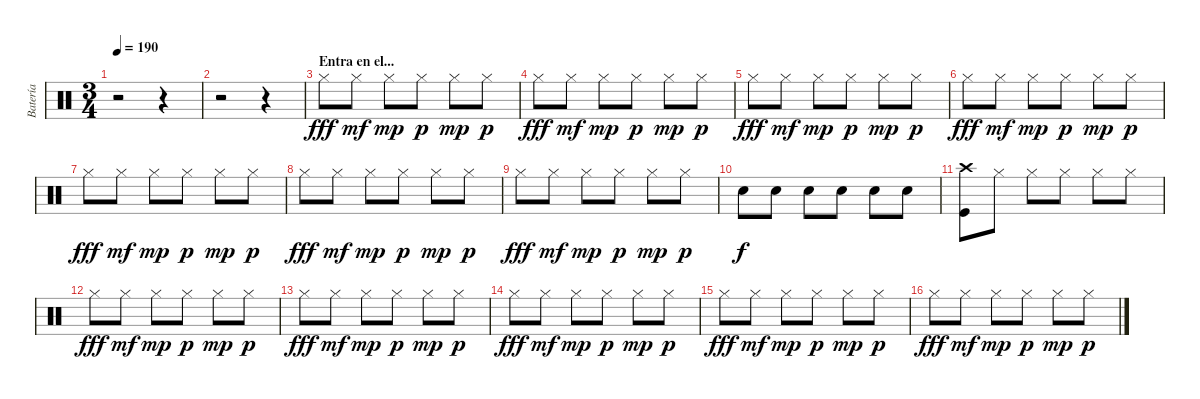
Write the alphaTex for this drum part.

\track ("Batería" "Batería") {instrument percussion}
\staff {score}
\articulation defaults
\ts (3 4)
\tempo 190
\clef neutral
\ks c
r.2{dy f} r.4 |
r.2 r.4 |
\section ("" "Entra en el...")
"Hi-Hat (closed)".8{dy fff} "Hi-Hat (closed)".8{dy mf} "Hi-Hat (closed)".8{dy mp} "Hi-Hat (closed)".8{dy p} "Hi-Hat (closed)".8{dy mp} "Hi-Hat (closed)".8{dy p} |
"Hi-Hat (closed)".8{dy fff} "Hi-Hat (closed)".8{dy mf} "Hi-Hat (closed)".8{dy mp} "Hi-Hat (closed)".8{dy p} "Hi-Hat (closed)".8{dy mp} "Hi-Hat (closed)".8{dy p} |
"Hi-Hat (closed)".8{dy fff} "Hi-Hat (closed)".8{dy mf} "Hi-Hat (closed)".8{dy mp} "Hi-Hat (closed)".8{dy p} "Hi-Hat (closed)".8{dy mp} "Hi-Hat (closed)".8{dy p} |
"Hi-Hat (closed)".8{dy fff} "Hi-Hat (closed)".8{dy mf} "Hi-Hat (closed)".8{dy mp} "Hi-Hat (closed)".8{dy p} "Hi-Hat (closed)".8{dy mp} "Hi-Hat (closed)".8{dy p} |
"Hi-Hat (closed)".8{dy fff} "Hi-Hat (closed)".8{dy mf} "Hi-Hat (closed)".8{dy mp} "Hi-Hat (closed)".8{dy p} "Hi-Hat (closed)".8{dy mp} "Hi-Hat (closed)".8{dy p} |
"Hi-Hat (closed)".8{dy fff} "Hi-Hat (closed)".8{dy mf} "Hi-Hat (closed)".8{dy mp} "Hi-Hat (closed)".8{dy p} "Hi-Hat (closed)".8{dy mp} "Hi-Hat (closed)".8{dy p} |
"Hi-Hat (closed)".8{dy fff} "Hi-Hat (closed)".8{dy mf} "Hi-Hat (closed)".8{dy mp} "Hi-Hat (closed)".8{dy p} "Hi-Hat (closed)".8{dy mp} "Hi-Hat (closed)".8{dy p} |
"Electric Snare (hit)".8{dy f} "Electric Snare (hit)".8 "Snare (hit) 2".8 "Snare (hit) 2".8 "Snare (hit) 2".8 "Snare (hit) 2".8 |
("Kick (hit)" "Crash high (hit)").8 "Hi-Hat (closed)".8 "Hi-Hat (closed)".8 "Hi-Hat (closed)".8 "Hi-Hat (closed)".8 "Hi-Hat (closed)".8 |
"Hi-Hat (closed)".8{dy fff} "Hi-Hat (closed)".8{dy mf} "Hi-Hat (closed)".8{dy mp} "Hi-Hat (closed)".8{dy p} "Hi-Hat (closed)".8{dy mp} "Hi-Hat (closed)".8{dy p} |
"Hi-Hat (closed)".8{dy fff} "Hi-Hat (closed)".8{dy mf} "Hi-Hat (closed)".8{dy mp} "Hi-Hat (closed)".8{dy p} "Hi-Hat (closed)".8{dy mp} "Hi-Hat (closed)".8{dy p} |
"Hi-Hat (closed)".8{dy fff} "Hi-Hat (closed)".8{dy mf} "Hi-Hat (closed)".8{dy mp} "Hi-Hat (closed)".8{dy p} "Hi-Hat (closed)".8{dy mp} "Hi-Hat (closed)".8{dy p} |
"Hi-Hat (closed)".8{dy fff} "Hi-Hat (closed)".8{dy mf} "Hi-Hat (closed)".8{dy mp} "Hi-Hat (closed)".8{dy p} "Hi-Hat (closed)".8{dy mp} "Hi-Hat (closed)".8{dy p} |
"Hi-Hat (closed)".8{dy fff} "Hi-Hat (closed)".8{dy mf} "Hi-Hat (closed)".8{dy mp} "Hi-Hat (closed)".8{dy p} "Hi-Hat (closed)".8{dy mp} "Hi-Hat (closed)".8{dy p}
